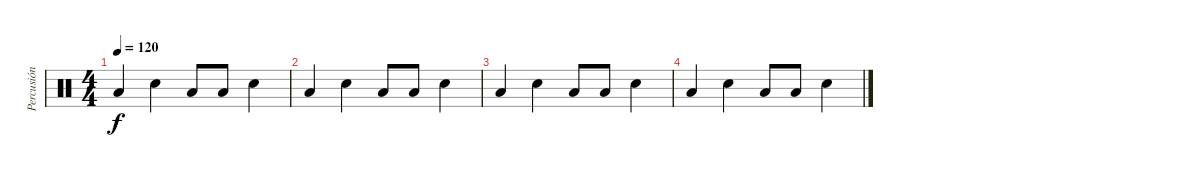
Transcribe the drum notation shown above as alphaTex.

\track ("Percusión" "Percusión") {instrument percussion}
\staff {score}
\articulation defaults
\ts (4 4)
\tempo 120
\clef neutral
\ks c "Low Tom (hit)".4{dy f} "Electric Snare (hit)".4 "Low Tom (hit)".8 "Low Tom (hit)".8 "Electric Snare (hit)".4
|
"Low Tom (hit)".4 "Electric Snare (hit)".4 "Low Tom (hit)".8 "Low Tom (hit)".8 "Electric Snare (hit)".4 |
"Low Tom (hit)".4 "Electric Snare (hit)".4 "Low Tom (hit)".8 "Low Tom (hit)".8 "Electric Snare (hit)".4 |
"Low Tom (hit)".4 "Electric Snare (hit)".4 "Low Tom (hit)".8 "Low Tom (hit)".8 "Electric Snare (hit)".4
